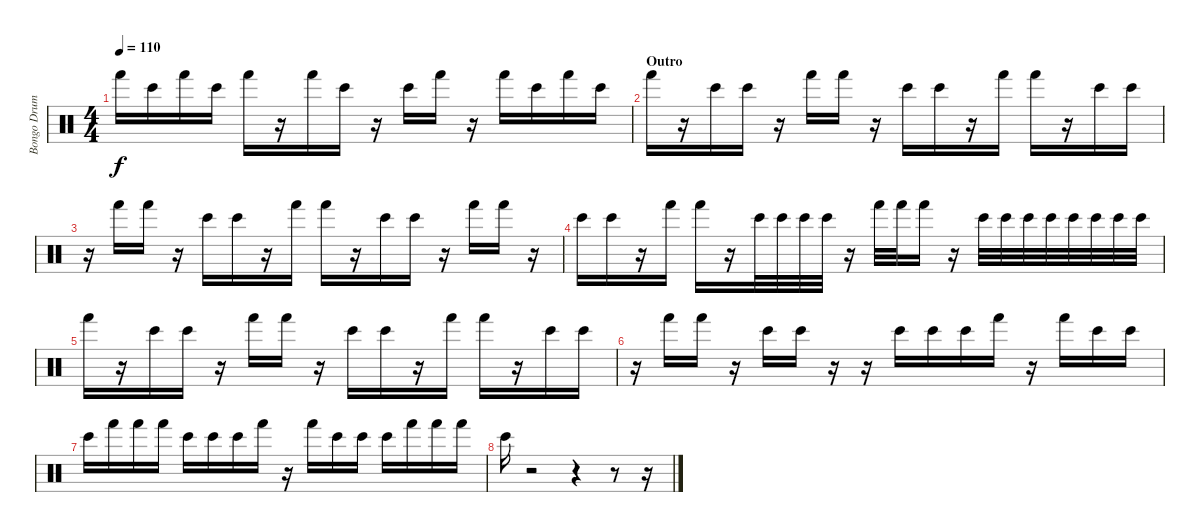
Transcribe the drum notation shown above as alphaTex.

\track ("Bongo Drums" "Bongo Drum") {instrument percussion}
\staff {score}
\articulation defaults
\ts (4 4)
\tempo 110
\clef neutral
\ks c "Hand (hit)".16{dy f} "Bongo High (hit)".16 "Hand (hit)".16 "Bongo High (hit)".16 "Hand (hit)".16
r.16 "Hand (hit)".16 "Bongo High (hit)".16 r.16 "Bongo High (hit)".16 "Hand (hit)".16 r.16 "Hand (hit)".16 "Bongo High (hit)".16 "Hand (hit)".16 "Bongo High (hit)".16 |
\section ("" "Outro")
"Hand (hit)".16 r.16 "Bongo High (hit)".16 "Bongo High (hit)".16 r.16 "Hand (hit)".16 "Hand (hit)".16 r.16 "Bongo High (hit)".16 "Bongo High (hit)".16 r.16 "Hand (hit)".16 "Hand (hit)".16 r.16 "Bongo High (hit)".16 "Bongo High (hit)".16 |
r.16 "Hand (hit)".16 "Hand (hit)".16 r.16 "Bongo High (hit)".16 "Bongo High (hit)".16 r.16 "Hand (hit)".16 "Hand (hit)".16 r.16 "Bongo High (hit)".16 "Bongo High (hit)".16 r.16 "Hand (hit)".16 "Hand (hit)".16 r.16 |
"Bongo High (hit)".16 "Bongo High (hit)".16 r.16 "Hand (hit)".16 "Hand (hit)".16 r.16 "Bongo High (hit)".32 "Bongo High (hit)".32 "Bongo High (hit)".32 "Bongo High (hit)".32 r.16 "Hand (hit)".32 "Hand (hit)".32 "Hand (hit)".16 r.16 "Bongo High (hit)".32 "Bongo High (hit)".32 "Bongo High (hit)".32 "Bongo High (hit)".32 "Bongo High (hit)".32 "Bongo High (hit)".32 "Bongo High (hit)".32 "Bongo High (hit)".32 |
"Hand (hit)".16 r.16 "Bongo High (hit)".16 "Bongo High (hit)".16 r.16 "Hand (hit)".16 "Hand (hit)".16 r.16 "Bongo High (hit)".16 "Bongo High (hit)".16 r.16 "Hand (hit)".16 "Hand (hit)".16 r.16 "Bongo High (hit)".16 "Bongo High (hit)".16 |
r.16 "Hand (hit)".16 "Hand (hit)".16 r.16 "Bongo High (hit)".16 "Bongo High (hit)".16 r.16 r.16 "Bongo High (hit)".16 "Bongo High (hit)".16 "Bongo High (hit)".16 "Hand (hit)".16 r.16 "Hand (hit)".16 "Bongo High (hit)".16 "Bongo High (hit)".16 |
"Bongo High (hit)".16 "Hand (hit)".16 "Hand (hit)".16 "Hand (hit)".16 "Bongo High (hit)".16 "Bongo High (hit)".16 "Bongo High (hit)".16 "Hand (hit)".16 r.16 "Hand (hit)".16 "Bongo High (hit)".16 "Bongo High (hit)".16 "Bongo High (hit)".16 "Hand (hit)".16 "Hand (hit)".16 "Hand (hit)".16 |
"Bongo High (hit)".16 r.2 r.4 r.8 r.16
